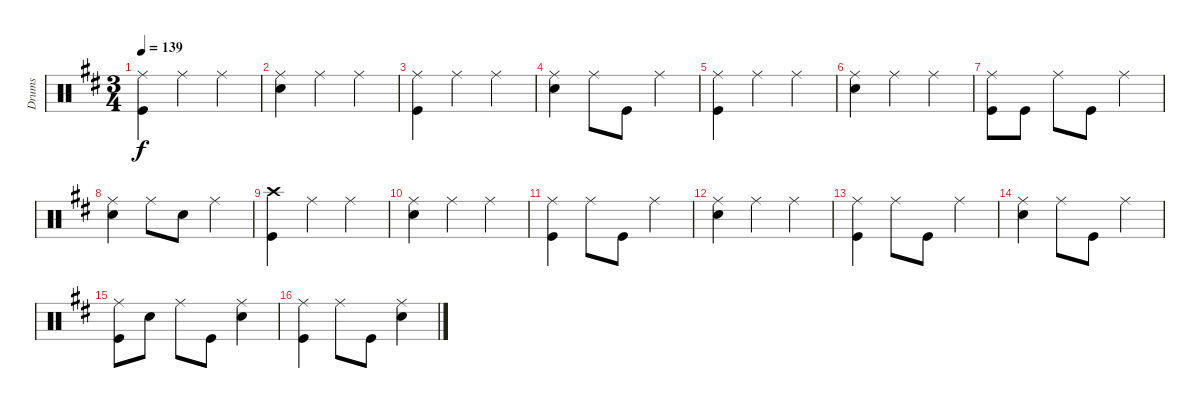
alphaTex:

\track ("Drums" "Drums") {instrument percussion}
\staff {score}
\articulation defaults
\ts (3 4)
\tempo 139
\clef neutral
\ks d
("Ride (middle)" "Kick (hit)").4{dy f} "Ride (middle)".4 "Ride (middle)".4 |
("Ride (middle)" "Snare (hit) 2").4 "Ride (middle)".4 "Ride (middle)".4 |
("Ride (middle)" "Kick (hit)").4 "Ride (middle)".4 "Ride (middle)".4 |
("Ride (middle)" "Snare (hit) 2").4 "Ride (middle)".8 "Kick (hit)".8 "Ride (middle)".4 |
("Ride (middle)" "Kick (hit)").4 "Ride (middle)".4 "Ride (middle)".4 |
("Ride (middle)" "Snare (hit) 2").4 "Ride (middle)".4 "Ride (middle)".4 |
("Ride (middle)" "Kick (hit)").8 "Kick (hit)".8 "Ride (middle)".8 "Kick (hit)".8 "Ride (middle)".4 |
("Ride (middle)" "Snare (hit) 2").4 "Ride (middle)".8 "Snare (hit) 2".8 "Ride (middle)".4 |
("Crash high (hit)" "Kick (hit)").4 "Ride (middle)".4 "Ride (middle)".4 |
("Ride (middle)" "Snare (hit) 2").4 "Ride (middle)".4 "Ride (middle)".4 |
("Ride (middle)" "Kick (hit)").4 "Ride (middle)".8 "Kick (hit)".8 "Ride (middle)".4 |
("Ride (middle)" "Snare (hit) 2").4 "Ride (middle)".4 "Ride (middle)".4 |
("Ride (middle)" "Kick (hit)").4 "Ride (middle)".8 "Kick (hit)".8 "Ride (middle)".4 |
("Ride (middle)" "Snare (hit) 2").4 "Ride (middle)".8 "Kick (hit)".8 "Ride (middle)".4 |
("Ride (middle)" "Kick (hit)").8 "Snare (hit) 2".8 "Ride (middle)".8 "Kick (hit)".8 ("Ride (middle)" "Snare (hit) 2").4 |
("Ride (middle)" "Kick (hit)").4 "Ride (middle)".8 "Kick (hit)".8 ("Ride (middle)" "Snare (hit) 2").4
